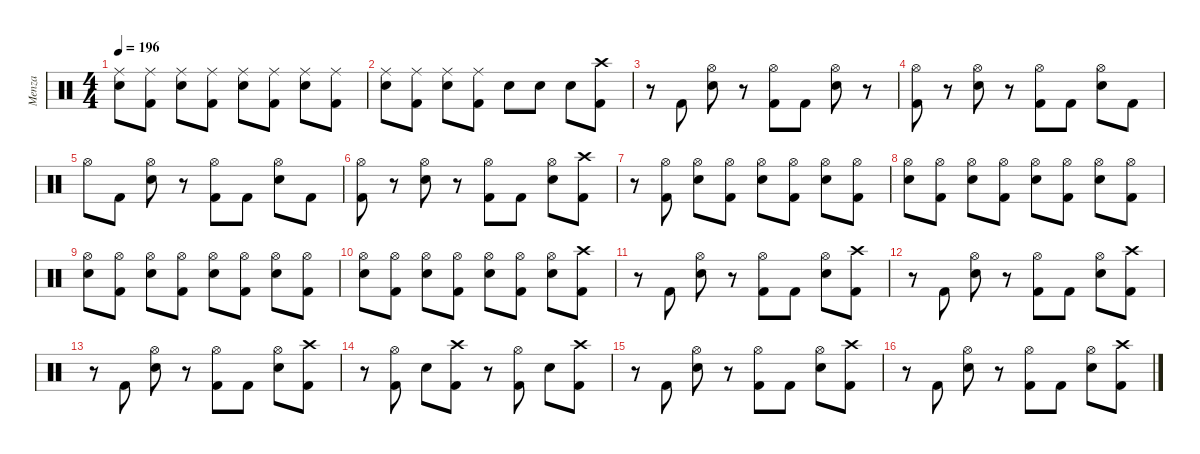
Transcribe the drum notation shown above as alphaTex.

\defaultSystemsLayout 4
\hideDynamics
\bracketExtendMode nobrackets
\firstSystemTrackNameMode fullname
\otherSystemsTrackNameOrientation horizontal
\track ("Menza" "drm.") {instrument percussion}
\staff {score}
\articulation defaults
\ts (4 4)
\tempo 196
\clef neutral
\ks c
("Ride (middle)" "Snare (hit) 2").8{dy ff beam Down} ("Ride (middle)" "Kick (hit) 2").8{beam Down} ("Ride (middle)" "Snare (hit) 2").8{beam Down} ("Ride (middle)" "Kick (hit) 2").8{beam Down} ("Ride (middle)" "Snare (hit) 2").8{beam Down} ("Ride (middle)" "Kick (hit) 2").8{beam Down} ("Ride (middle)" "Snare (hit) 2").8{beam Down} ("Ride (middle)" "Kick (hit) 2").8{beam Down} |
("Ride (middle)" "Snare (hit) 2").8{beam Down} ("Ride (middle)" "Kick (hit) 2").8{beam Down} ("Ride (middle)" "Snare (hit) 2").8{beam Down} ("Ride (middle)" "Kick (hit) 2").8{beam Down} "Snare (hit) 2".8{dy fff beam Down} "Snare (hit) 2".8{beam Down} "Snare (hit) 2".8{beam Down} ("Crash high (hit)" "Kick (hit) 2").8{dy ff beam Down} |
r.8{beam Down} "Kick (hit) 2".8{dy fff beam Up} ("Hi-Hat (open)" "Snare (hit) 2").8{dy f beam Down} r.8{beam Down} ("Hi-Hat (open)" "Kick (hit) 2").8{beam Down} "Kick (hit) 2".8{dy fff beam Down} ("Hi-Hat (open)" "Snare (hit) 2").8{dy f beam Down} r.8{beam Down} |
("Hi-Hat (open)" "Kick (hit) 2").8{beam Down} r.8{beam Down} ("Hi-Hat (open)" "Snare (hit) 2").8{beam Down} r.8{beam Down} ("Hi-Hat (open)" "Kick (hit) 2").8{beam Down} "Kick (hit) 2".8{dy fff beam Down} ("Hi-Hat (open)" "Snare (hit) 2").8{dy f beam Down} "Kick (hit) 2".8{dy fff beam Down} |
"Hi-Hat (open)".8{dy f beam Down} "Kick (hit) 2".8{dy fff beam Down} ("Hi-Hat (open)" "Snare (hit) 2").8{dy f beam Down} r.8{beam Down} ("Hi-Hat (open)" "Kick (hit) 2").8{beam Down} "Kick (hit) 2".8{dy fff beam Down} ("Hi-Hat (open)" "Snare (hit) 2").8{dy f beam Down} "Kick (hit) 2".8{dy fff beam Down} |
("Hi-Hat (open)" "Kick (hit) 2").8{dy f beam Down} r.8{beam Down} ("Hi-Hat (open)" "Snare (hit) 2").8{beam Down} r.8{beam Down} ("Hi-Hat (open)" "Kick (hit) 2").8{beam Down} "Kick (hit) 2".8{dy fff beam Down} ("Hi-Hat (open)" "Snare (hit) 2").8{dy f beam Down} ("Crash high (hit)" "Kick (hit) 2").8{dy ff beam Down} |
r.8{beam Down} ("Hi-Hat (open)" "Kick (hit) 2").8{dy f beam Down} ("Hi-Hat (open)" "Snare (hit) 2").8{beam Down} ("Hi-Hat (open)" "Kick (hit) 2").8{beam Down} ("Hi-Hat (open)" "Snare (hit) 2").8{beam Down} ("Hi-Hat (open)" "Kick (hit) 2").8{beam Down} ("Hi-Hat (open)" "Snare (hit) 2").8{beam Down} ("Hi-Hat (open)" "Kick (hit) 2").8{beam Down} |
("Hi-Hat (open)" "Snare (hit) 2").8{beam Down} ("Hi-Hat (open)" "Kick (hit) 2").8{beam Down} ("Hi-Hat (open)" "Snare (hit) 2").8{beam Down} ("Hi-Hat (open)" "Kick (hit) 2").8{beam Down} ("Hi-Hat (open)" "Snare (hit) 2").8{beam Down} ("Hi-Hat (open)" "Kick (hit) 2").8{beam Down} ("Hi-Hat (open)" "Snare (hit) 2").8{beam Down} ("Hi-Hat (open)" "Kick (hit) 2").8{beam Down} |
("Hi-Hat (open)" "Snare (hit) 2").8{beam Down} ("Hi-Hat (open)" "Kick (hit) 2").8{beam Down} ("Hi-Hat (open)" "Snare (hit) 2").8{beam Down} ("Hi-Hat (open)" "Kick (hit) 2").8{beam Down} ("Hi-Hat (open)" "Snare (hit) 2").8{beam Down} ("Hi-Hat (open)" "Kick (hit) 2").8{beam Down} ("Hi-Hat (open)" "Snare (hit) 2").8{beam Down} ("Hi-Hat (open)" "Kick (hit) 2").8{beam Down} |
("Hi-Hat (open)" "Snare (hit) 2").8{beam Down} ("Hi-Hat (open)" "Kick (hit) 2").8{beam Down} ("Hi-Hat (open)" "Snare (hit) 2").8{beam Down} ("Hi-Hat (open)" "Kick (hit) 2").8{beam Down} ("Hi-Hat (open)" "Snare (hit) 2").8{beam Down} ("Hi-Hat (open)" "Kick (hit) 2").8{beam Down} ("Hi-Hat (open)" "Snare (hit) 2").8{beam Down} ("Crash high (hit)" "Kick (hit) 2").8{dy ff beam Down} |
r.8{beam Down} "Kick (hit) 2".8{dy fff beam Up} ("Hi-Hat (open)" "Snare (hit) 2").8{dy f beam Down} r.8{beam Down} ("Hi-Hat (open)" "Kick (hit) 2").8{beam Down} "Kick (hit) 2".8{dy fff beam Down} ("Hi-Hat (open)" "Snare (hit) 2").8{dy f beam Down} ("Crash high (hit)" "Kick (hit) 2").8{dy ff beam Down} |
r.8{beam Down} "Kick (hit) 2".8{dy fff beam Up} ("Hi-Hat (open)" "Snare (hit) 2").8{dy f beam Down} r.8{beam Down} ("Hi-Hat (open)" "Kick (hit) 2").8{beam Down} "Kick (hit) 2".8{dy fff beam Down} ("Hi-Hat (open)" "Snare (hit) 2").8{dy f beam Down} ("Crash high (hit)" "Kick (hit) 2").8{dy ff beam Down} |
r.8{beam Down} "Kick (hit) 2".8{dy fff beam Up} ("Hi-Hat (open)" "Snare (hit) 2").8{dy f beam Down} r.8{beam Down} ("Hi-Hat (open)" "Kick (hit) 2").8{beam Down} "Kick (hit) 2".8{dy fff beam Down} ("Hi-Hat (open)" "Snare (hit) 2").8{dy f beam Down} ("Crash high (hit)" "Kick (hit) 2").8{dy ff beam Down} |
r.8{beam Down} ("Hi-Hat (open)" "Kick (hit) 2").8{dy f beam Down} "Snare (hit) 2".8{dy fff beam Down} ("Crash high (hit)" "Kick (hit) 2").8{dy ff beam Down} r.8{beam Down} ("Hi-Hat (open)" "Kick (hit) 2").8{dy f beam Down} "Snare (hit) 2".8{dy fff beam Down} ("Crash high (hit)" "Kick (hit) 2").8{dy ff beam Down} |
r.8{beam Down} "Kick (hit) 2".8{dy fff beam Up} ("Hi-Hat (open)" "Snare (hit) 2").8{dy f beam Down} r.8{beam Down} ("Hi-Hat (open)" "Kick (hit) 2").8{beam Down} "Kick (hit) 2".8{dy fff beam Down} ("Hi-Hat (open)" "Snare (hit) 2").8{dy f beam Down} ("Crash high (hit)" "Kick (hit) 2").8{dy ff beam Down} |
r.8{beam Down} "Kick (hit) 2".8{dy fff beam Up} ("Hi-Hat (open)" "Snare (hit) 2").8{dy f beam Down} r.8{beam Down} ("Hi-Hat (open)" "Kick (hit) 2").8{beam Down} "Kick (hit) 2".8{dy fff beam Down} ("Hi-Hat (open)" "Snare (hit) 2").8{dy f beam Down} ("Crash high (hit)" "Kick (hit) 2").8{dy ff beam Down}
